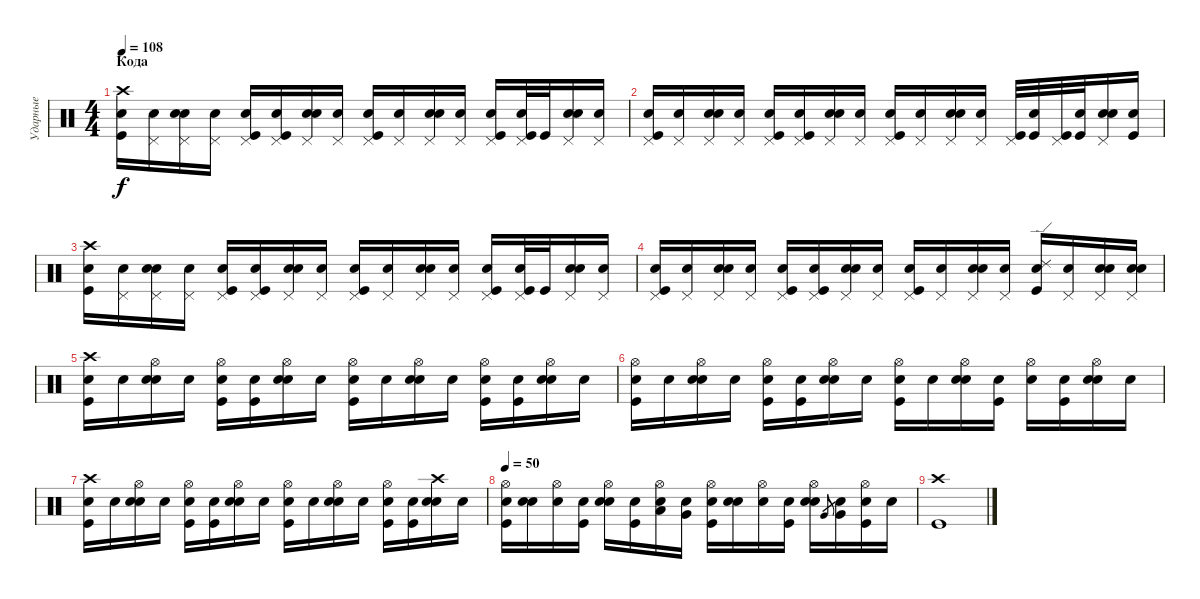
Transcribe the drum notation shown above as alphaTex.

\track ("Ударные" "Ударные") {instrument percussion}
\staff {score}
\articulation defaults
\ts (4 4)
\section ("" "Кода")
\tempo 108
\clef neutral
\ks c
("Crash high (hit)" "Kick (hit)" "Snare (hit)"{x}).16{dy f} ("Pedal Hi-Hat (hit)" "Snare (hit)"{x}).16 ("Snare (hit) 2" "Pedal Hi-Hat (hit)" "Snare (hit)"{x}).16 ("Pedal Hi-Hat (hit)" "Snare (hit)"{x}).16 ("Kick (hit)" "Pedal Hi-Hat (hit)" "Snare (hit)"{x}).16 ("Kick (hit)" "Pedal Hi-Hat (hit)" "Snare (hit)"{x}).16 ("Snare (hit) 2" "Pedal Hi-Hat (hit)" "Snare (hit)"{x}).16 ("Pedal Hi-Hat (hit)" "Snare (hit)"{x}).16 ("Kick (hit)" "Pedal Hi-Hat (hit)" "Snare (hit)"{x}).16 ("Pedal Hi-Hat (hit)" "Snare (hit)"{x}).16 ("Snare (hit) 2" "Pedal Hi-Hat (hit)" "Snare (hit)"{x}).16 ("Pedal Hi-Hat (hit)" "Snare (hit)"{x}).16 ("Kick (hit)" "Pedal Hi-Hat (hit)" "Snare (hit)"{x}).16 ("Kick (hit)" "Pedal Hi-Hat (hit)" "Snare (hit)"{x}).32 "Kick (hit)".32 ("Snare (hit) 2" "Pedal Hi-Hat (hit)" "Snare (hit)"{x}).16 ("Pedal Hi-Hat (hit)" "Snare (hit)"{x}).16 |
("Kick (hit)" "Pedal Hi-Hat (hit)" "Snare (hit)"{x}).16 ("Pedal Hi-Hat (hit)" "Snare (hit)"{x}).16 ("Snare (hit) 2" "Pedal Hi-Hat (hit)" "Snare (hit)"{x}).16 ("Pedal Hi-Hat (hit)" "Snare (hit)"{x}).16 ("Kick (hit)" "Pedal Hi-Hat (hit)" "Snare (hit)"{x}).16 ("Kick (hit)" "Pedal Hi-Hat (hit)" "Snare (hit)"{x}).16 ("Snare (hit) 2" "Pedal Hi-Hat (hit)" "Snare (hit)"{x}).16 ("Pedal Hi-Hat (hit)" "Snare (hit)"{x}).16 ("Kick (hit)" "Pedal Hi-Hat (hit)" "Snare (hit)"{x}).16 ("Pedal Hi-Hat (hit)" "Snare (hit)"{x}).16 ("Snare (hit) 2" "Pedal Hi-Hat (hit)" "Snare (hit)"{x}).16 ("Pedal Hi-Hat (hit)" "Snare (hit)"{x}).16 ("Kick (hit)" "Pedal Hi-Hat (hit)").32 ("Kick (hit)" "Snare (hit)"{x}).32 ("Kick (hit)" "Pedal Hi-Hat (hit)").32 ("Kick (hit)" "Snare (hit)"{x}).32 ("Snare (hit) 2" "Pedal Hi-Hat (hit)" "Snare (hit)"{x}).16 ("Kick (hit)" "Snare (hit)"{x}).16 |
("Kick (hit)" "Crash high (hit)" "Snare (hit)"{x}).16 ("Pedal Hi-Hat (hit)" "Snare (hit)"{x}).16 ("Snare (hit) 2" "Pedal Hi-Hat (hit)" "Snare (hit)"{x}).16 ("Pedal Hi-Hat (hit)" "Snare (hit)"{x}).16 ("Kick (hit)" "Pedal Hi-Hat (hit)" "Snare (hit)"{x}).16 ("Kick (hit)" "Pedal Hi-Hat (hit)" "Snare (hit)"{x}).16 ("Snare (hit) 2" "Pedal Hi-Hat (hit)" "Snare (hit)"{x}).16 ("Pedal Hi-Hat (hit)" "Snare (hit)"{x}).16 ("Kick (hit)" "Pedal Hi-Hat (hit)" "Snare (hit)"{x}).16 ("Pedal Hi-Hat (hit)" "Snare (hit)"{x}).16 ("Snare (hit) 2" "Pedal Hi-Hat (hit)" "Snare (hit)"{x}).16 ("Pedal Hi-Hat (hit)" "Snare (hit)"{x}).16 ("Kick (hit)" "Pedal Hi-Hat (hit)" "Snare (hit)"{x}).16 ("Kick (hit)" "Pedal Hi-Hat (hit)" "Snare (hit)"{x}).32 "Kick (hit)".32 ("Snare (hit) 2" "Pedal Hi-Hat (hit)" "Snare (hit)"{x}).16 ("Pedal Hi-Hat (hit)" "Snare (hit)"{x}).16 |
("Kick (hit)" "Pedal Hi-Hat (hit)" "Snare (hit)"{x}).16 ("Pedal Hi-Hat (hit)" "Snare (hit)"{x}).16 ("Snare (hit) 2" "Pedal Hi-Hat (hit)" "Snare (hit)"{x}).16 ("Pedal Hi-Hat (hit)" "Snare (hit)"{x}).16 ("Kick (hit)" "Pedal Hi-Hat (hit)" "Snare (hit)"{x}).16 ("Kick (hit)" "Pedal Hi-Hat (hit)" "Snare (hit)"{x}).16 ("Snare (hit) 2" "Pedal Hi-Hat (hit)" "Snare (hit)"{x}).16 ("Pedal Hi-Hat (hit)" "Snare (hit)"{x}).16 ("Kick (hit)" "Pedal Hi-Hat (hit)" "Snare (hit)"{x}).16 ("Pedal Hi-Hat (hit)" "Snare (hit)"{x}).16 ("Snare (hit) 2" "Pedal Hi-Hat (hit)" "Snare (hit)"{x}).16 ("Pedal Hi-Hat (hit)" "Snare (hit)"{x}).16 ("Kick (hit)" "Ride (edge) 2" "Snare (hit)"{x}).16 ("Snare (hit) 2" "Pedal Hi-Hat (hit)").16 ("Snare (hit) 2" "Pedal Hi-Hat (hit)" "Snare (hit)"{x}).16 ("Snare (hit) 2" "Pedal Hi-Hat (hit)" "Snare (hit)"{x}).16 |
("Crash high (hit)" "Kick (hit)" "Snare (hit)"{x}).16 "Snare (hit)"{x}.16 ("Snare (hit) 2" "Hi-Hat (open)" "Snare (hit)"{x}).16 "Snare (hit)"{x}.16 ("Kick (hit)" "Hi-Hat (open)" "Snare (hit)"{x}).16 ("Kick (hit)" "Snare (hit)"{x}).16 ("Snare (hit) 2" "Hi-Hat (open)" "Snare (hit)"{x}).16 "Snare (hit)"{x}.16 ("Kick (hit)" "Hi-Hat (open)" "Snare (hit)"{x}).16 "Snare (hit)"{x}.16 ("Snare (hit) 2" "Hi-Hat (open)" "Snare (hit)"{x}).16 "Snare (hit)"{x}.16 ("Kick (hit)" "Hi-Hat (open)" "Snare (hit)"{x}).16 ("Kick (hit)" "Snare (hit)"{x}).16 ("Snare (hit) 2" "Hi-Hat (open)" "Snare (hit)"{x}).16 "Snare (hit)"{x}.16 |
("Hi-Hat (open)" "Kick (hit)" "Snare (hit)"{x}).16 "Snare (hit)"{x}.16 ("Snare (hit) 2" "Hi-Hat (open)" "Snare (hit)"{x}).16 "Snare (hit)"{x}.16 ("Kick (hit)" "Hi-Hat (open)" "Snare (hit)"{x}).16 ("Kick (hit)" "Snare (hit)"{x}).16 ("Snare (hit) 2" "Hi-Hat (open)" "Snare (hit)"{x}).16 "Snare (hit)"{x}.16 ("Kick (hit)" "Hi-Hat (open)" "Snare (hit)"{x}).16 "Snare (hit)"{x}.16 ("Snare (hit) 2" "Hi-Hat (open)" "Snare (hit)"{x}).16 ("Kick (hit)" "Snare (hit)"{x}).16 ("Hi-Hat (open)" "Snare (hit)"{x}).16 ("Kick (hit)" "Snare (hit)"{x}).16 ("Snare (hit) 2" "Hi-Hat (open)" "Snare (hit)"{x}).16 "Snare (hit)"{x}.16 |
("Crash high (hit)" "Kick (hit)" "Snare (hit)"{x}).16 "Snare (hit)"{x}.16 ("Snare (hit) 2" "Hi-Hat (open)" "Snare (hit)"{x}).16 "Snare (hit)"{x}.16 ("Kick (hit)" "Hi-Hat (open)" "Snare (hit)"{x}).16 ("Kick (hit)" "Snare (hit)"{x}).16 ("Snare (hit) 2" "Hi-Hat (open)" "Snare (hit)"{x}).16 "Snare (hit)"{x}.16 ("Kick (hit)" "Hi-Hat (open)" "Snare (hit)"{x}).16 "Snare (hit)"{x}.16 ("Snare (hit) 2" "Hi-Hat (open)" "Snare (hit)"{x}).16 "Snare (hit)"{x}.16 ("Kick (hit)" "Hi-Hat (open)" "Snare (hit)"{x}).16 ("Kick (hit)" "Snare (hit)"{x}).16 ("Snare (hit) 2" "Crash high (hit)" "Snare (hit)"{x}).16 "Snare (hit)"{x}.16 |
\tempo 50
("Hi-Hat (open)" "Kick (hit)" "Snare (hit)"{x}).16 ("Snare (hit) 2" "Snare (hit)"{x}).16 ("Hi-Hat (open)" "Snare (hit)"{x}).16 ("Kick (hit)" "Snare (hit)"{x}).16 ("Snare (hit) 2" "Hi-Hat (open)" "Snare (hit)"{x}).16 ("Kick (hit)" "Snare (hit)"{x}).16 ("Low Tom (hit)" "Hi-Hat (open)" "Snare (hit)"{x}).16 ("Very Low Tom (hit)" "Snare (hit)"{x}).16 ("Kick (hit)" "Hi-Hat (open)" "Snare (hit)"{x}).16 ("Snare (hit) 2" "Snare (hit)"{x}).16 ("Hi-Hat (open)" "Snare (hit)"{x}).16 ("Kick (hit)" "Snare (hit)"{x}).16 ("Snare (hit) 2" "Hi-Hat (open)" "Snare (hit)"{x}).16 "Very Low Tom (hit)".8{gr} ("Very Low Tom (hit)" "Snare (hit)"{x}).16 ("Kick (hit)" "Hi-Hat (open)" "Snare (hit)"{x}).16 "Snare (hit)"{x}.16 |
("Crash high (hit)" "Kick (hit)").1{volume 0}
